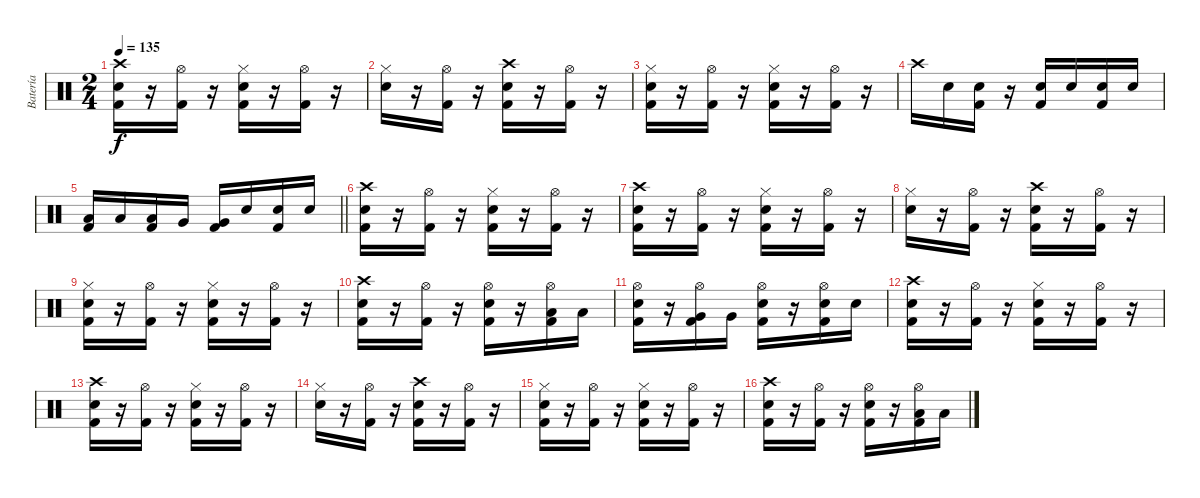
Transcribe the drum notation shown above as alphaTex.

\track ("Batería   (Jony)" "Batería   ") {instrument percussion}
\staff {score}
\articulation defaults
\ts (2 4)
\tempo 135
\clef neutral
\ks c
("Crash high (hit)" "Electric Snare (hit)" "Kick (hit) 2").16{dy f} r.16 ("Hi-Hat (open)" "Kick (hit) 2").16 r.16 ("Hi-Hat (closed)" "Electric Snare (hit)" "Kick (hit) 2").16 r.16 ("Hi-Hat (open)" "Kick (hit) 2").16 r.16 |
("Hi-Hat (closed)" "Electric Snare (hit)").16 r.16 ("Hi-Hat (open)" "Kick (hit) 2").16 r.16 ("Crash high (hit)" "Electric Snare (hit)" "Kick (hit) 2").16 r.16 ("Hi-Hat (open)" "Kick (hit) 2").16 r.16 |
("Hi-Hat (closed)" "Electric Snare (hit)" "Kick (hit) 2").16 r.16 ("Hi-Hat (open)" "Kick (hit) 2").16 r.16 ("Hi-Hat (closed)" "Electric Snare (hit)" "Kick (hit) 2").16 r.16 ("Hi-Hat (open)" "Kick (hit) 2").16 r.16 |
"Crash high (hit)".16 "Electric Snare (hit)".16 ("Electric Snare (hit)" "Kick (hit) 2").16 r.16 ("Electric Snare (hit)" "Kick (hit) 2").16 "Electric Snare (hit)".16 ("Electric Snare (hit)" "Kick (hit) 2").16 "Electric Snare (hit)".16 |
\barLineRight lightlight
("Low Tom (hit)" "Kick (hit) 2").16 "Low Tom (hit)".16 ("Low Tom (hit)" "Kick (hit) 2").16 "Very Low Tom (hit)".16 ("Very Low Tom (hit)" "Kick (hit) 2").16 "Electric Snare (hit)".16 ("Electric Snare (hit)" "Kick (hit) 2").16 "Electric Snare (hit)".16 |
("Crash high (hit)" "Electric Snare (hit)" "Kick (hit) 2").16 r.16 ("Hi-Hat (open)" "Kick (hit) 2").16 r.16 ("Hi-Hat (closed)" "Electric Snare (hit)" "Kick (hit) 2").16 r.16 ("Hi-Hat (open)" "Kick (hit) 2").16 r.16 |
("Crash high (hit)" "Electric Snare (hit)" "Kick (hit) 2").16 r.16 ("Hi-Hat (open)" "Kick (hit) 2").16 r.16 ("Hi-Hat (closed)" "Electric Snare (hit)" "Kick (hit) 2").16 r.16 ("Hi-Hat (open)" "Kick (hit) 2").16 r.16 |
("Hi-Hat (closed)" "Electric Snare (hit)").16 r.16 ("Hi-Hat (open)" "Kick (hit) 2").16 r.16 ("Crash high (hit)" "Electric Snare (hit)" "Kick (hit) 2").16 r.16 ("Hi-Hat (open)" "Kick (hit) 2").16 r.16 |
("Hi-Hat (closed)" "Electric Snare (hit)" "Kick (hit) 2").16 r.16 ("Hi-Hat (open)" "Kick (hit) 2").16 r.16 ("Hi-Hat (closed)" "Electric Snare (hit)" "Kick (hit) 2").16 r.16 ("Hi-Hat (open)" "Kick (hit) 2").16 r.16 |
("Crash high (hit)" "Electric Snare (hit)" "Kick (hit) 2").16 r.16 ("Hi-Hat (open)" "Kick (hit) 2").16 r.16 ("Hi-Hat (open)" "Electric Snare (hit)" "Kick (hit) 2").16 r.16 ("Hi-Hat (open)" "Low Tom (hit)" "Kick (hit) 2").16 "Low Tom (hit)".16 |
("Hi-Hat (open)" "Electric Snare (hit)" "Kick (hit) 2").16 r.16 ("Hi-Hat (open)" "Very Low Tom (hit)" "Kick (hit) 2").16 "Very Low Tom (hit)".16 ("Hi-Hat (open)" "Electric Snare (hit)" "Kick (hit) 2").16 r.16 ("Hi-Hat (open)" "Electric Snare (hit)" "Kick (hit) 2").16 "Electric Snare (hit)".16 |
("Crash high (hit)" "Electric Snare (hit)" "Kick (hit) 2").16 r.16 ("Hi-Hat (open)" "Kick (hit) 2").16 r.16 ("Hi-Hat (closed)" "Electric Snare (hit)" "Kick (hit) 2").16 r.16 ("Hi-Hat (open)" "Kick (hit) 2").16 r.16 |
("Crash high (hit)" "Electric Snare (hit)" "Kick (hit) 2").16 r.16 ("Hi-Hat (open)" "Kick (hit) 2").16 r.16 ("Hi-Hat (closed)" "Electric Snare (hit)" "Kick (hit) 2").16 r.16 ("Hi-Hat (open)" "Kick (hit) 2").16 r.16 |
("Hi-Hat (closed)" "Electric Snare (hit)").16 r.16 ("Hi-Hat (open)" "Kick (hit) 2").16 r.16 ("Crash high (hit)" "Electric Snare (hit)" "Kick (hit) 2").16 r.16 ("Hi-Hat (open)" "Kick (hit) 2").16 r.16 |
("Hi-Hat (closed)" "Electric Snare (hit)" "Kick (hit) 2").16 r.16 ("Hi-Hat (open)" "Kick (hit) 2").16 r.16 ("Hi-Hat (closed)" "Electric Snare (hit)" "Kick (hit) 2").16 r.16 ("Hi-Hat (open)" "Kick (hit) 2").16 r.16 |
("Crash high (hit)" "Electric Snare (hit)" "Kick (hit) 2").16 r.16 ("Hi-Hat (open)" "Kick (hit) 2").16 r.16 ("Hi-Hat (open)" "Electric Snare (hit)" "Kick (hit) 2").16 r.16 ("Hi-Hat (open)" "Low Tom (hit)" "Kick (hit) 2").16 "Low Tom (hit)".16
